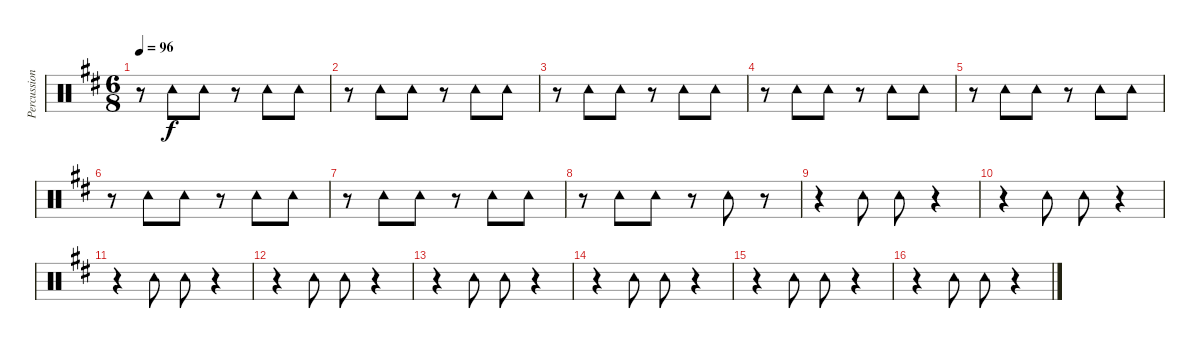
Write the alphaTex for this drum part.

\track ("Percussion" "Percussion") {instrument percussion}
\staff {score}
\articulation defaults
\ts (6 8)
\tempo 96
\clef neutral
\ks bminor
r.8{dy f} "Tambourine (hit)".8 "Tambourine (hit)".8 r.8 "Tambourine (hit)".8 "Tambourine (hit)".8 |
r.8 "Tambourine (hit)".8 "Tambourine (hit)".8 r.8 "Tambourine (hit)".8 "Tambourine (hit)".8 |
r.8 "Tambourine (hit)".8 "Tambourine (hit)".8 r.8 "Tambourine (hit)".8 "Tambourine (hit)".8 |
r.8 "Tambourine (hit)".8 "Tambourine (hit)".8 r.8 "Tambourine (hit)".8 "Tambourine (hit)".8 |
r.8 "Tambourine (hit)".8 "Tambourine (hit)".8 r.8 "Tambourine (hit)".8 "Tambourine (hit)".8 |
r.8 "Tambourine (hit)".8 "Tambourine (hit)".8 r.8 "Tambourine (hit)".8 "Tambourine (hit)".8 |
r.8 "Tambourine (hit)".8 "Tambourine (hit)".8 r.8 "Tambourine (hit)".8 "Tambourine (hit)".8 |
r.8 "Tambourine (hit)".8 "Tambourine (hit)".8 r.8 "Tambourine (hit)".8 r.8 |
r.4 "Tambourine (hit)".8 "Tambourine (hit)".8 r.4 |
r.4 "Tambourine (hit)".8 "Tambourine (hit)".8 r.4 |
r.4 "Tambourine (hit)".8 "Tambourine (hit)".8 r.4 |
r.4 "Tambourine (hit)".8 "Tambourine (hit)".8 r.4 |
r.4 "Tambourine (hit)".8 "Tambourine (hit)".8 r.4 |
r.4 "Tambourine (hit)".8 "Tambourine (hit)".8 r.4 |
r.4 "Tambourine (hit)".8 "Tambourine (hit)".8 r.4 |
r.4 "Tambourine (hit)".8 "Tambourine (hit)".8 r.4
